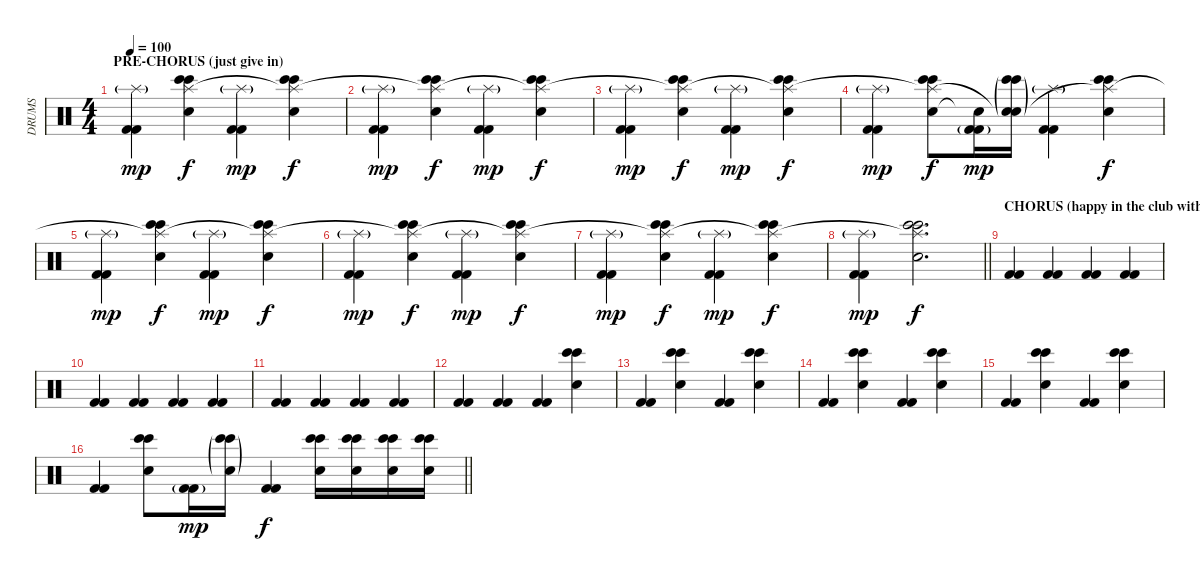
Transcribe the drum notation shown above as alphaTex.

\track ("DRUMS" "DRUMS") {instrument percussion}
\staff {score}
\articulation defaults
\ts (4 4)
\section ("" "PRE-CHORUS (just give in)")
\tempo 100
\clef neutral
\ks c
("Kick (hit) 2" "Kick (hit) 2" "Splash (hit)"{g}).4{dy mp} ("Bongo High (hit)" "Bongo High (hit)" "Snare (hit) 2" "Splash (hit)"{t}).4{dy f} ("Kick (hit) 2" "Kick (hit) 2" "Splash (hit)"{g}).4{dy mp} ("Bongo High (hit)" "Bongo High (hit)" "Snare (hit) 2" "Splash (hit)"{t}).4{dy f} |
("Kick (hit) 2" "Kick (hit) 2" "Splash (hit)"{g}).4{dy mp} ("Bongo High (hit)" "Bongo High (hit)" "Snare (hit) 2" "Splash (hit)"{t}).4{dy f} ("Kick (hit) 2" "Kick (hit) 2" "Splash (hit)"{g}).4{dy mp} ("Bongo High (hit)" "Bongo High (hit)" "Snare (hit) 2" "Splash (hit)"{t}).4{dy f} |
("Kick (hit) 2" "Kick (hit) 2" "Splash (hit)"{g}).4{dy mp} ("Bongo High (hit)" "Bongo High (hit)" "Snare (hit) 2" "Splash (hit)"{t}).4{dy f} ("Kick (hit) 2" "Kick (hit) 2" "Splash (hit)"{g}).4{dy mp} ("Bongo High (hit)" "Bongo High (hit)" "Snare (hit) 2" "Splash (hit)"{t}).4{dy f} |
("Kick (hit) 2" "Kick (hit) 2" "Splash (hit)"{g}).4{dy mp} ("Bongo High (hit)" "Bongo High (hit)" "Snare (hit) 2" "Splash (hit)"{t}).8{dy f} ("Kick (hit) 2"{g} "Kick (hit) 2"{g} "Snare (hit)"{t}).16{dy mp} ("Bongo High (hit)"{g} "Bongo High (hit)"{g} "Snare (hit) 2"{g} "Snare (hit)"{t}).16 ("Kick (hit) 2" "Kick (hit) 2" "Splash (hit)"{g}).4 ("Bongo High (hit)" "Bongo High (hit)" "Snare (hit) 2" "Splash (hit)"{t}).4{dy f} |
("Kick (hit) 2" "Kick (hit) 2" "Splash (hit)"{g}).4{dy mp} ("Bongo High (hit)" "Bongo High (hit)" "Snare (hit) 2" "Splash (hit)"{t}).4{dy f} ("Kick (hit) 2" "Kick (hit) 2" "Splash (hit)"{g}).4{dy mp} ("Bongo High (hit)" "Bongo High (hit)" "Snare (hit) 2" "Splash (hit)"{t}).4{dy f} |
("Kick (hit) 2" "Kick (hit) 2" "Splash (hit)"{g}).4{dy mp} ("Bongo High (hit)" "Bongo High (hit)" "Snare (hit) 2" "Splash (hit)"{t}).4{dy f} ("Kick (hit) 2" "Kick (hit) 2" "Splash (hit)"{g}).4{dy mp} ("Bongo High (hit)" "Bongo High (hit)" "Snare (hit) 2" "Splash (hit)"{t}).4{dy f} |
("Kick (hit) 2" "Kick (hit) 2" "Splash (hit)"{g}).4{dy mp} ("Bongo High (hit)" "Bongo High (hit)" "Snare (hit) 2" "Splash (hit)"{t}).4{dy f} ("Kick (hit) 2" "Kick (hit) 2" "Splash (hit)"{g}).4{dy mp} ("Bongo High (hit)" "Bongo High (hit)" "Snare (hit) 2" "Splash (hit)"{t}).4{dy f} |
\barLineRight lightlight
("Kick (hit) 2" "Kick (hit) 2" "Splash (hit)"{g}).4{dy mp} ("Bongo High (hit)" "Bongo High (hit)" "Snare (hit) 2" "Splash (hit)"{t}).2{d dy f} |
\section ("" "CHORUS (happy in the club with a bottle of red wine...)")
("Kick (hit) 2" "Kick (hit) 2").4 ("Kick (hit) 2" "Kick (hit) 2").4 ("Kick (hit) 2" "Kick (hit) 2").4 ("Kick (hit) 2" "Kick (hit) 2").4 |
("Kick (hit) 2" "Kick (hit) 2").4 ("Kick (hit) 2" "Kick (hit) 2").4 ("Kick (hit) 2" "Kick (hit) 2").4 ("Kick (hit) 2" "Kick (hit) 2").4 |
("Kick (hit) 2" "Kick (hit) 2").4 ("Kick (hit) 2" "Kick (hit) 2").4 ("Kick (hit) 2" "Kick (hit) 2").4 ("Kick (hit) 2" "Kick (hit) 2").4 |
("Kick (hit) 2" "Kick (hit) 2").4 ("Kick (hit) 2" "Kick (hit) 2").4 ("Kick (hit) 2" "Kick (hit) 2").4 ("Bongo High (hit)" "Bongo High (hit)" "Snare (hit) 2").4 |
("Kick (hit) 2" "Kick (hit) 2").4 ("Bongo High (hit)" "Bongo High (hit)" "Snare (hit) 2").4 ("Kick (hit) 2" "Kick (hit) 2").4 ("Bongo High (hit)" "Bongo High (hit)" "Snare (hit) 2").4 |
("Kick (hit) 2" "Kick (hit) 2").4 ("Bongo High (hit)" "Bongo High (hit)" "Snare (hit) 2").4 ("Kick (hit) 2" "Kick (hit) 2").4 ("Bongo High (hit)" "Bongo High (hit)" "Snare (hit) 2").4 |
("Kick (hit) 2" "Kick (hit) 2").4 ("Bongo High (hit)" "Bongo High (hit)" "Snare (hit) 2").4 ("Kick (hit) 2" "Kick (hit) 2").4 ("Bongo High (hit)" "Bongo High (hit)" "Snare (hit) 2").4 |
\barLineRight lightlight
("Kick (hit) 2" "Kick (hit) 2").4 ("Bongo High (hit)" "Bongo High (hit)" "Snare (hit) 2").8 ("Kick (hit) 2"{g} "Kick (hit) 2"{g}).16{dy mp} ("Bongo High (hit)"{g} "Bongo High (hit)"{g} "Snare (hit) 2"{g}).16 ("Kick (hit) 2" "Kick (hit) 2").4{dy f} ("Bongo High (hit)" "Bongo High (hit)" "Snare (hit) 2").16 ("Bongo High (hit)" "Bongo High (hit)" "Snare (hit) 2").16 ("Bongo High (hit)" "Bongo High (hit)" "Snare (hit) 2").16 ("Bongo High (hit)" "Bongo High (hit)" "Snare (hit) 2").16
